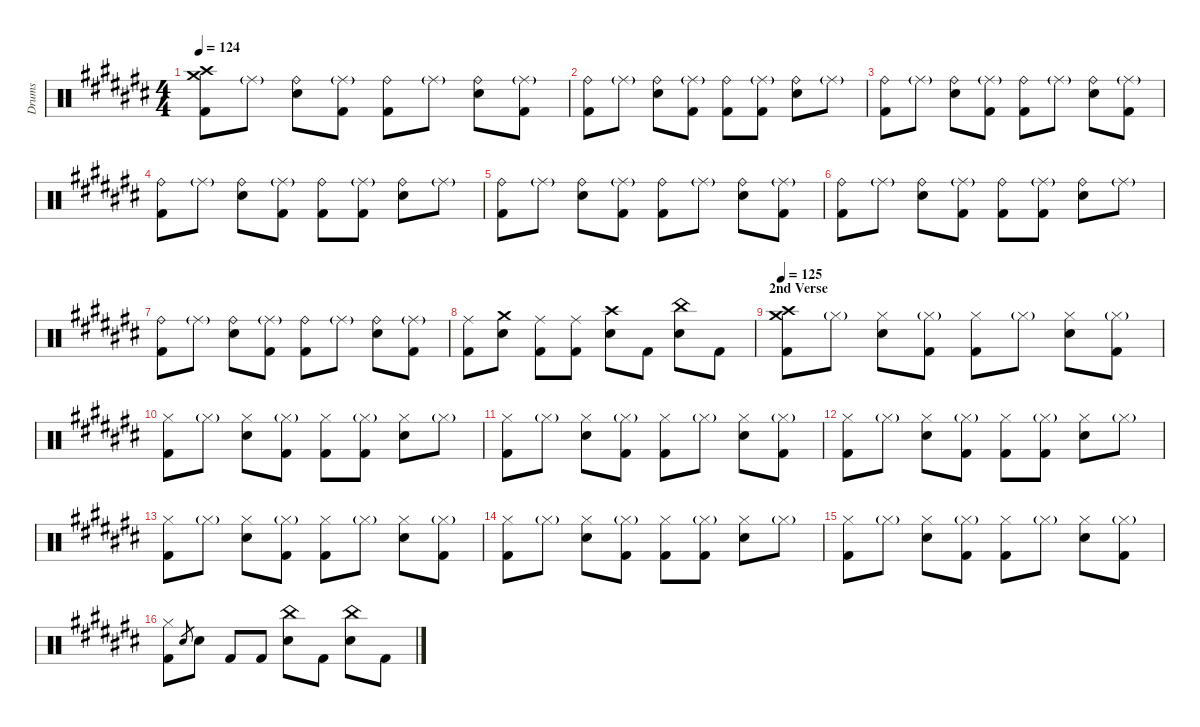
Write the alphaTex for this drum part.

\hideDynamics
\bracketExtendMode nobrackets
\otherSystemsTrackNameOrientation horizontal
\track ("Drumkit" "Drums") {defaultSystemsLayout 4 instrument percussion}
\staff {score}
\articulation defaults
\ts (4 4)
\tempo 124
\clef neutral
\ks c#
("Crash medium (hit)"{acc forcenatural} "Kick (hit) 2"{acc forcenatural} "Crash high (hit)"{acc forcenatural}).8{dy ff beam Down} "Ride (middle)"{g acc forcenatural}.8{beam Down} ("Ride (bell)"{acc forcenatural} "Snare (hit) 2"{acc forcenatural}).8{beam Down} ("Ride (middle)"{g acc forcenatural} "Kick (hit) 2"{acc forcenatural}).8{beam Down} ("Ride (bell)"{acc forcenatural} "Kick (hit) 2"{acc forcenatural}).8{beam Down} "Ride (middle)"{g acc forcenatural}.8{beam Down} ("Ride (bell)"{acc forcenatural} "Snare (hit) 2"{acc forcenatural}).8{beam Down} ("Ride (middle)"{g acc forcenatural} "Kick (hit) 2"{acc forcenatural}).8{beam Down} |
("Kick (hit) 2"{acc forcenatural} "Ride (bell)"{acc forcenatural}).8{beam Down} "Ride (middle)"{g acc forcenatural}.8{beam Down} ("Ride (bell)"{acc forcenatural} "Snare (hit) 2"{acc forcenatural}).8{beam Down} ("Ride (middle)"{g acc forcenatural} "Kick (hit) 2"{acc forcenatural}).8{beam Down} ("Ride (bell)"{acc forcenatural} "Kick (hit) 2"{acc forcenatural}).8{beam Down} ("Ride (middle)"{g acc forcenatural} "Kick (hit) 2"{acc forcenatural}).8{beam Down} ("Ride (bell)"{acc forcenatural} "Snare (hit) 2"{acc forcenatural}).8{beam Down} "Ride (middle)"{g acc forcenatural}.8{beam Down} |
("Kick (hit) 2"{acc forcenatural} "Ride (bell)"{acc forcenatural}).8{beam Down} "Ride (middle)"{g acc forcenatural}.8{beam Down} ("Ride (bell)"{acc forcenatural} "Snare (hit) 2"{acc forcenatural}).8{beam Down} ("Ride (middle)"{g acc forcenatural} "Kick (hit) 2"{acc forcenatural}).8{beam Down} ("Ride (bell)"{acc forcenatural} "Kick (hit) 2"{acc forcenatural}).8{beam Down} "Ride (middle)"{g acc forcenatural}.8{beam Down} ("Ride (bell)"{acc forcenatural} "Snare (hit) 2"{acc forcenatural}).8{beam Down} ("Ride (middle)"{g acc forcenatural} "Kick (hit) 2"{acc forcenatural}).8{beam Down} |
("Kick (hit) 2"{acc forcenatural} "Ride (bell)"{acc forcenatural}).8{beam Down} "Ride (middle)"{g acc forcenatural}.8{beam Down} ("Ride (bell)"{acc forcenatural} "Snare (hit) 2"{acc forcenatural}).8{beam Down} ("Ride (middle)"{g acc forcenatural} "Kick (hit) 2"{acc forcenatural}).8{beam Down} ("Ride (bell)"{acc forcenatural} "Kick (hit) 2"{acc forcenatural}).8{beam Down} ("Ride (middle)"{g acc forcenatural} "Kick (hit) 2"{acc forcenatural}).8{beam Down} ("Ride (bell)"{acc forcenatural} "Snare (hit) 2"{acc forcenatural}).8{beam Down} "Ride (middle)"{g acc forcenatural}.8{beam Down} |
("Kick (hit) 2"{acc forcenatural} "Ride (bell)"{acc forcenatural}).8{beam Down} "Ride (middle)"{g acc forcenatural}.8{beam Down} ("Ride (bell)"{acc forcenatural} "Snare (hit) 2"{acc forcenatural}).8{beam Down} ("Ride (middle)"{g acc forcenatural} "Kick (hit) 2"{acc forcenatural}).8{beam Down} ("Ride (bell)"{acc forcenatural} "Kick (hit) 2"{acc forcenatural}).8{beam Down} "Ride (middle)"{g acc forcenatural}.8{beam Down} ("Ride (bell)"{acc forcenatural} "Snare (hit) 2"{acc forcenatural}).8{beam Down} ("Ride (middle)"{g acc forcenatural} "Kick (hit) 2"{acc forcenatural}).8{beam Down} |
("Kick (hit) 2"{acc forcenatural} "Ride (bell)"{acc forcenatural}).8{beam Down} "Ride (middle)"{g acc forcenatural}.8{beam Down} ("Ride (bell)"{acc forcenatural} "Snare (hit) 2"{acc forcenatural}).8{beam Down} ("Ride (middle)"{g acc forcenatural} "Kick (hit) 2"{acc forcenatural}).8{beam Down} ("Ride (bell)"{acc forcenatural} "Kick (hit) 2"{acc forcenatural}).8{beam Down} ("Ride (middle)"{g acc forcenatural} "Kick (hit) 2"{acc forcenatural}).8{beam Down} ("Ride (bell)"{acc forcenatural} "Snare (hit) 2"{acc forcenatural}).8{beam Down} "Ride (middle)"{g acc forcenatural}.8{beam Down} |
("Kick (hit) 2"{acc forcenatural} "Ride (bell)"{acc forcenatural}).8{beam Down} "Ride (middle)"{g acc forcenatural}.8{beam Down} ("Ride (bell)"{acc forcenatural} "Snare (hit) 2"{acc forcenatural}).8{beam Down} ("Ride (middle)"{g acc forcenatural} "Kick (hit) 2"{acc forcenatural}).8{beam Down} ("Ride (bell)"{acc forcenatural} "Kick (hit) 2"{acc forcenatural}).8{beam Down} "Ride (middle)"{g acc forcenatural}.8{beam Down} ("Ride (bell)"{acc forcenatural} "Snare (hit) 2"{acc forcenatural}).8{beam Down} ("Ride (middle)"{g acc forcenatural} "Kick (hit) 2"{acc forcenatural}).8{beam Down} |
("Ride (middle)"{acc forcenatural} "Kick (hit) 2"{acc forcenatural}).8{beam Down} ("Crash medium (hit)"{acc forcenatural} "Snare (hit) 2"{acc forcenatural}).8{beam Down} ("Ride (middle)"{acc forcenatural} "Kick (hit) 2"{acc forcenatural}).8{beam Down} ("Ride (middle)"{acc forcenatural} "Kick (hit) 2"{acc forcenatural}).8{beam Down} ("Crash high (hit)"{acc forcenatural} "Snare (hit) 2"{acc forcenatural}).8{beam Down} "Kick (hit) 2"{acc forcenatural}.8{beam Down} ("Snare (hit) 2"{acc forcenatural} "China (hit)"{acc forcenatural}).8{beam Down} "Kick (hit) 2"{acc forcenatural}.8{beam Down} |
\section ("" "2nd Verse")
\tempo 125
("Crash medium (hit)"{acc forcenatural} "Kick (hit) 2"{acc forcenatural} "Crash high (hit)"{acc forcenatural}).8{beam Down} "Hi-Hat (closed)"{g acc forcenatural}.8{beam Down} ("Hi-Hat (closed)"{acc forcenatural} "Snare (hit) 2"{acc forcenatural}).8{beam Down} ("Hi-Hat (closed)"{g acc forcenatural} "Kick (hit) 2"{acc forcenatural}).8{beam Down} ("Hi-Hat (closed)"{acc forcenatural} "Kick (hit) 2"{acc forcenatural}).8{beam Down} "Hi-Hat (closed)"{g acc forcenatural}.8{beam Down} ("Hi-Hat (closed)"{acc forcenatural} "Snare (hit) 2"{acc forcenatural}).8{beam Down} ("Hi-Hat (closed)"{g acc forcenatural} "Kick (hit) 2"{acc forcenatural}).8{beam Down} |
("Hi-Hat (closed)"{acc forcenatural} "Kick (hit) 2"{acc forcenatural}).8{beam Down} "Hi-Hat (closed)"{g acc forcenatural}.8{beam Down} ("Hi-Hat (closed)"{acc forcenatural} "Snare (hit) 2"{acc forcenatural}).8{beam Down} ("Hi-Hat (closed)"{g acc forcenatural} "Kick (hit) 2"{acc forcenatural}).8{beam Down} ("Hi-Hat (closed)"{acc forcenatural} "Kick (hit) 2"{acc forcenatural}).8{beam Down} ("Hi-Hat (closed)"{g acc forcenatural} "Kick (hit) 2"{acc forcenatural}).8{beam Down} ("Hi-Hat (closed)"{acc forcenatural} "Snare (hit) 2"{acc forcenatural}).8{beam Down} "Hi-Hat (closed)"{g acc forcenatural}.8{beam Down} |
("Hi-Hat (closed)"{acc forcenatural} "Kick (hit) 2"{acc forcenatural}).8{beam Down} "Hi-Hat (closed)"{g acc forcenatural}.8{beam Down} ("Hi-Hat (closed)"{acc forcenatural} "Snare (hit) 2"{acc forcenatural}).8{beam Down} ("Hi-Hat (closed)"{g acc forcenatural} "Kick (hit) 2"{acc forcenatural}).8{beam Down} ("Hi-Hat (closed)"{acc forcenatural} "Kick (hit) 2"{acc forcenatural}).8{beam Down} "Hi-Hat (closed)"{g acc forcenatural}.8{beam Down} ("Hi-Hat (closed)"{acc forcenatural} "Snare (hit) 2"{acc forcenatural}).8{beam Down} ("Hi-Hat (closed)"{g acc forcenatural} "Kick (hit) 2"{acc forcenatural}).8{beam Down} |
("Hi-Hat (closed)"{acc forcenatural} "Kick (hit) 2"{acc forcenatural}).8{beam Down} "Hi-Hat (closed)"{g acc forcenatural}.8{beam Down} ("Hi-Hat (closed)"{acc forcenatural} "Snare (hit) 2"{acc forcenatural}).8{beam Down} ("Hi-Hat (closed)"{g acc forcenatural} "Kick (hit) 2"{acc forcenatural}).8{beam Down} ("Hi-Hat (closed)"{acc forcenatural} "Kick (hit) 2"{acc forcenatural}).8{beam Down} ("Hi-Hat (closed)"{g acc forcenatural} "Kick (hit) 2"{acc forcenatural}).8{beam Down} ("Hi-Hat (closed)"{acc forcenatural} "Snare (hit) 2"{acc forcenatural}).8{beam Down} "Hi-Hat (closed)"{g acc forcenatural}.8{beam Down} |
("Hi-Hat (closed)"{acc forcenatural} "Kick (hit) 2"{acc forcenatural}).8{beam Down} "Hi-Hat (closed)"{g acc forcenatural}.8{beam Down} ("Hi-Hat (closed)"{acc forcenatural} "Snare (hit) 2"{acc forcenatural}).8{beam Down} ("Hi-Hat (closed)"{g acc forcenatural} "Kick (hit) 2"{acc forcenatural}).8{beam Down} ("Hi-Hat (closed)"{acc forcenatural} "Kick (hit) 2"{acc forcenatural}).8{beam Down} "Hi-Hat (closed)"{g acc forcenatural}.8{beam Down} ("Hi-Hat (closed)"{acc forcenatural} "Snare (hit) 2"{acc forcenatural}).8{beam Down} ("Hi-Hat (closed)"{g acc forcenatural} "Kick (hit) 2"{acc forcenatural}).8{beam Down} |
("Hi-Hat (closed)"{acc forcenatural} "Kick (hit) 2"{acc forcenatural}).8{beam Down} "Hi-Hat (closed)"{g acc forcenatural}.8{beam Down} ("Hi-Hat (closed)"{acc forcenatural} "Snare (hit) 2"{acc forcenatural}).8{beam Down} ("Hi-Hat (closed)"{g acc forcenatural} "Kick (hit) 2"{acc forcenatural}).8{beam Down} ("Hi-Hat (closed)"{acc forcenatural} "Kick (hit) 2"{acc forcenatural}).8{beam Down} ("Hi-Hat (closed)"{g acc forcenatural} "Kick (hit) 2"{acc forcenatural}).8{beam Down} ("Hi-Hat (closed)"{acc forcenatural} "Snare (hit) 2"{acc forcenatural}).8{beam Down} "Hi-Hat (closed)"{g acc forcenatural}.8{beam Down} |
("Hi-Hat (closed)"{acc forcenatural} "Kick (hit) 2"{acc forcenatural}).8{beam Down} "Hi-Hat (closed)"{g acc forcenatural}.8{beam Down} ("Hi-Hat (closed)"{acc forcenatural} "Snare (hit) 2"{acc forcenatural}).8{beam Down} ("Hi-Hat (closed)"{g acc forcenatural} "Kick (hit) 2"{acc forcenatural}).8{beam Down} ("Hi-Hat (closed)"{acc forcenatural} "Kick (hit) 2"{acc forcenatural}).8{beam Down} "Hi-Hat (closed)"{g acc forcenatural}.8{beam Down} ("Hi-Hat (closed)"{acc forcenatural} "Snare (hit) 2"{acc forcenatural}).8{beam Down} ("Hi-Hat (closed)"{g acc forcenatural} "Kick (hit) 2"{acc forcenatural}).8{beam Down} |
("Hi-Hat (closed)"{acc forcenatural} "Kick (hit) 2"{acc forcenatural}).8{beam Down} "Snare (hit) 2"{acc forcenatural}.8{gr beam Up} "Snare (hit) 2"{acc forcenatural}.8{beam Down} "Kick (hit) 2"{acc forcenatural}.8{beam Up} "Kick (hit) 2"{acc forcenatural}.8{beam Up} ("Snare (hit) 2"{acc forcenatural} "China (hit)"{acc forcenatural}).8{beam Down} "Kick (hit) 2"{acc forcenatural}.8{beam Down} ("Snare (hit) 2"{acc forcenatural} "China (hit)"{acc forcenatural}).8{beam Down} "Kick (hit) 2"{acc forcenatural}.8{beam Down}
